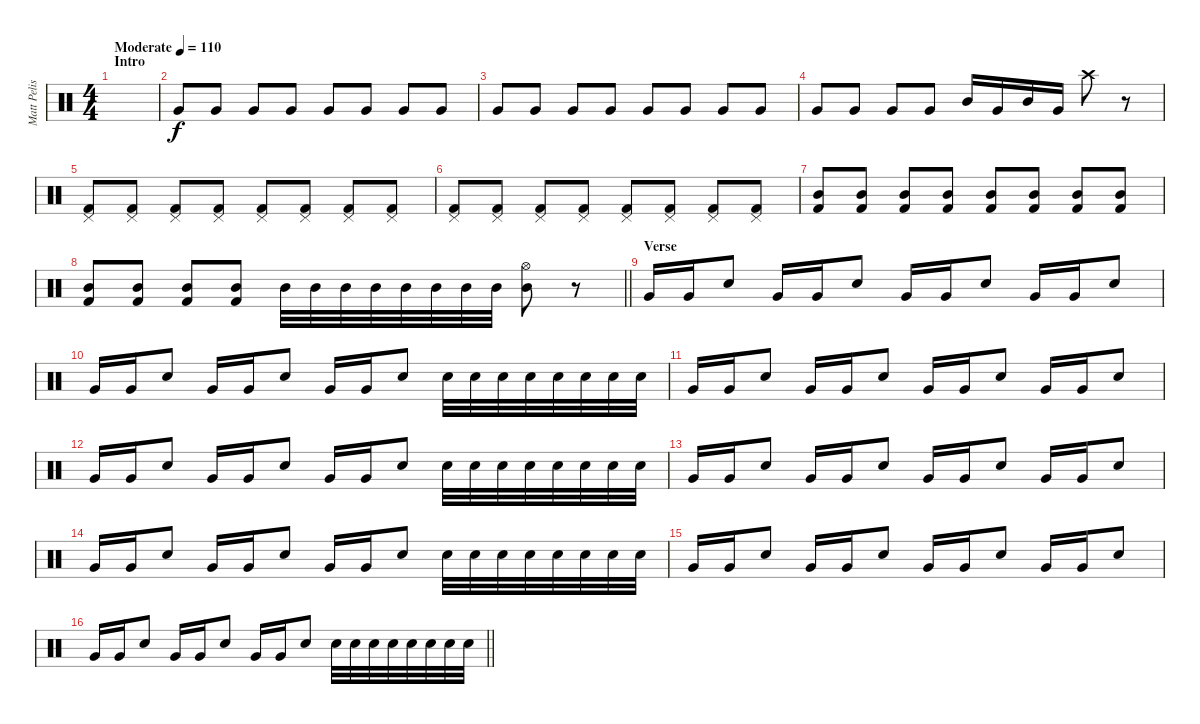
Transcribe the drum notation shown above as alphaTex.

\track ("Matt Pelissier (Bob Bryar)" "Matt Pelis") {instrument percussion}
\staff {score}
\articulation defaults
\ts (4 4)
\section ("" "Intro")
\tempo (110 "Moderate")
\clef neutral
\ks c
|
"Very Low Tom (hit)".8 "Very Low Tom (hit)".8 "Very Low Tom (hit)".8 "Very Low Tom (hit)".8 "Very Low Tom (hit)".8 "Very Low Tom (hit)".8 "Very Low Tom (hit)".8 "Very Low Tom (hit)".8 |
"Very Low Tom (hit)".8 "Very Low Tom (hit)".8 "Very Low Tom (hit)".8 "Very Low Tom (hit)".8 "Very Low Tom (hit)".8 "Very Low Tom (hit)".8 "Very Low Tom (hit)".8 "Very Low Tom (hit)".8 |
"Very Low Tom (hit)".8 "Very Low Tom (hit)".8 "Very Low Tom (hit)".8 "Very Low Tom (hit)".8 "Mid Tom (hit)".16 "Very Low Tom (hit)".16 "Mid Tom (hit)".16 "Very Low Tom (hit)".16 "Crash high (hit)".8 r.8 |
("Pedal Hi-Hat (hit)" "Kick (hit) 2").8 ("Pedal Hi-Hat (hit)" "Kick (hit) 2").8 ("Pedal Hi-Hat (hit)" "Kick (hit) 2").8 ("Pedal Hi-Hat (hit)" "Kick (hit) 2").8 ("Pedal Hi-Hat (hit)" "Kick (hit) 2").8 ("Pedal Hi-Hat (hit)" "Kick (hit) 2").8 ("Pedal Hi-Hat (hit)" "Kick (hit) 2").8 ("Pedal Hi-Hat (hit)" "Kick (hit) 2").8 |
("Pedal Hi-Hat (hit)" "Kick (hit) 2").8 ("Pedal Hi-Hat (hit)" "Kick (hit) 2").8 ("Pedal Hi-Hat (hit)" "Kick (hit) 2").8 ("Pedal Hi-Hat (hit)" "Kick (hit) 2").8 ("Pedal Hi-Hat (hit)" "Kick (hit) 2").8 ("Pedal Hi-Hat (hit)" "Kick (hit) 2").8 ("Pedal Hi-Hat (hit)" "Kick (hit) 2").8 ("Pedal Hi-Hat (hit)" "Kick (hit) 2").8 |
("Mid Tom (hit)" "Kick (hit) 2").8 ("Mid Tom (hit)" "Kick (hit) 2").8 ("Mid Tom (hit)" "Kick (hit) 2").8 ("Mid Tom (hit)" "Kick (hit) 2").8 ("Mid Tom (hit)" "Kick (hit) 2").8 ("Mid Tom (hit)" "Kick (hit) 2").8 ("Mid Tom (hit)" "Kick (hit) 2").8 ("Mid Tom (hit)" "Kick (hit) 2").8 |
\barLineRight lightlight
("Mid Tom (hit)" "Kick (hit) 2").8 ("Mid Tom (hit)" "Kick (hit) 2").8 ("Mid Tom (hit)" "Kick (hit) 2").8 ("Mid Tom (hit)" "Kick (hit) 2").8 "Mid Tom (hit)".32 "Mid Tom (hit)".32 "Mid Tom (hit)".32 "Mid Tom (hit)".32 "Mid Tom (hit)".32 "Mid Tom (hit)".32 "Mid Tom (hit)".32 "Mid Tom (hit)".32 ("Mid Tom (hit)" "Hi-Hat (open)").8 r.8 |
\section ("" "Verse")
"Very Low Tom (hit)".16 "Very Low Tom (hit)".16 "Electric Snare (hit)".8 "Very Low Tom (hit)".16 "Very Low Tom (hit)".16 "Electric Snare (hit)".8 "Very Low Tom (hit)".16 "Very Low Tom (hit)".16 "Electric Snare (hit)".8 "Very Low Tom (hit)".16 "Very Low Tom (hit)".16 "Electric Snare (hit)".8 |
"Very Low Tom (hit)".16 "Very Low Tom (hit)".16 "Electric Snare (hit)".8 "Very Low Tom (hit)".16 "Very Low Tom (hit)".16 "Electric Snare (hit)".8 "Very Low Tom (hit)".16 "Very Low Tom (hit)".16 "Electric Snare (hit)".8 "Electric Snare (hit)".32 "Electric Snare (hit)".32 "Electric Snare (hit)".32 "Electric Snare (hit)".32 "Electric Snare (hit)".32 "Electric Snare (hit)".32 "Electric Snare (hit)".32 "Electric Snare (hit)".32 |
"Very Low Tom (hit)".16 "Very Low Tom (hit)".16 "Electric Snare (hit)".8 "Very Low Tom (hit)".16 "Very Low Tom (hit)".16 "Electric Snare (hit)".8 "Very Low Tom (hit)".16 "Very Low Tom (hit)".16 "Electric Snare (hit)".8 "Very Low Tom (hit)".16 "Very Low Tom (hit)".16 "Electric Snare (hit)".8 |
"Very Low Tom (hit)".16 "Very Low Tom (hit)".16 "Electric Snare (hit)".8 "Very Low Tom (hit)".16 "Very Low Tom (hit)".16 "Electric Snare (hit)".8 "Very Low Tom (hit)".16 "Very Low Tom (hit)".16 "Electric Snare (hit)".8 "Electric Snare (hit)".32 "Electric Snare (hit)".32 "Electric Snare (hit)".32 "Electric Snare (hit)".32 "Electric Snare (hit)".32 "Electric Snare (hit)".32 "Electric Snare (hit)".32 "Electric Snare (hit)".32 |
"Very Low Tom (hit)".16 "Very Low Tom (hit)".16 "Electric Snare (hit)".8 "Very Low Tom (hit)".16 "Very Low Tom (hit)".16 "Electric Snare (hit)".8 "Very Low Tom (hit)".16 "Very Low Tom (hit)".16 "Electric Snare (hit)".8 "Very Low Tom (hit)".16 "Very Low Tom (hit)".16 "Electric Snare (hit)".8 |
"Very Low Tom (hit)".16 "Very Low Tom (hit)".16 "Electric Snare (hit)".8 "Very Low Tom (hit)".16 "Very Low Tom (hit)".16 "Electric Snare (hit)".8 "Very Low Tom (hit)".16 "Very Low Tom (hit)".16 "Electric Snare (hit)".8 "Electric Snare (hit)".32 "Electric Snare (hit)".32 "Electric Snare (hit)".32 "Electric Snare (hit)".32 "Electric Snare (hit)".32 "Electric Snare (hit)".32 "Electric Snare (hit)".32 "Electric Snare (hit)".32 |
"Very Low Tom (hit)".16 "Very Low Tom (hit)".16 "Electric Snare (hit)".8 "Very Low Tom (hit)".16 "Very Low Tom (hit)".16 "Electric Snare (hit)".8 "Very Low Tom (hit)".16 "Very Low Tom (hit)".16 "Electric Snare (hit)".8 "Very Low Tom (hit)".16 "Very Low Tom (hit)".16 "Electric Snare (hit)".8 |
\barLineRight lightlight "Very Low Tom (hit)".16 "Very Low Tom (hit)".16 "Electric Snare (hit)".8 "Very Low Tom (hit)".16 "Very Low Tom (hit)".16 "Electric Snare (hit)".8 "Very Low Tom (hit)".16 "Very Low Tom (hit)".16 "Electric Snare (hit)".8 "Electric Snare (hit)".32 "Electric Snare (hit)".32 "Electric Snare (hit)".32 "Electric Snare (hit)".32 "Electric Snare (hit)".32 "Electric Snare (hit)".32 "Electric Snare (hit)".32 "Electric Snare (hit)".32
